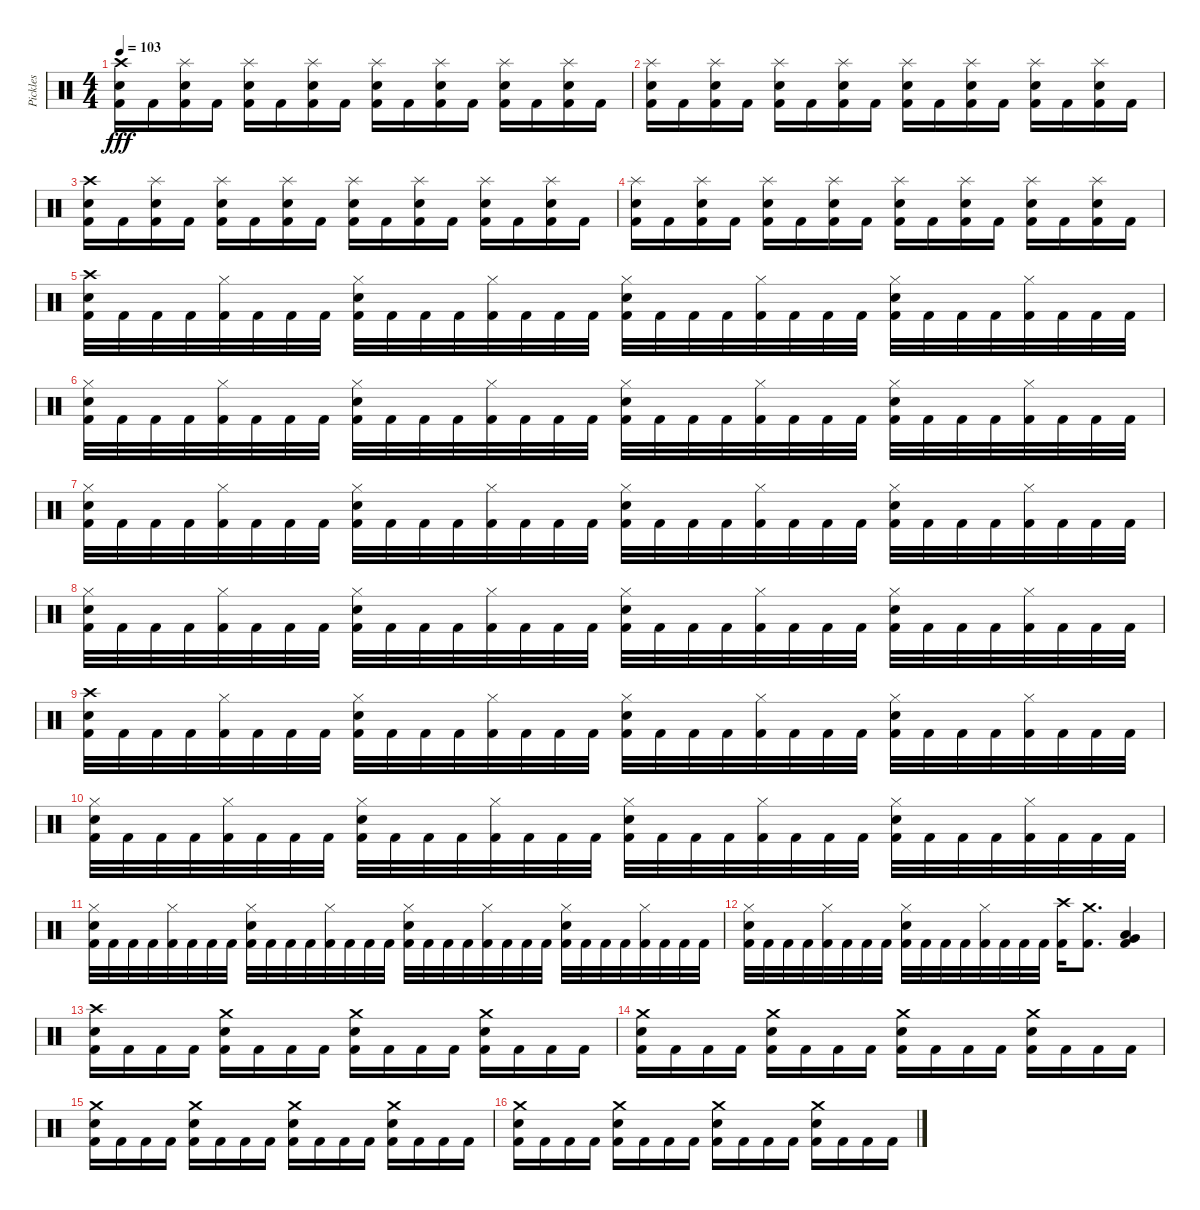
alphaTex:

\track ("Pickles" "Pickles") {instrument percussion}
\staff {score}
\articulation defaults
\ts (4 4)
\tempo 103
\clef neutral
\ks c
("Crash high (hit)" "Electric Snare (hit)" "Kick (hit) 2").16{dy fff} "Kick (hit) 2".16 ("Splash (hit)" "Electric Snare (hit)" "Kick (hit) 2").16 "Kick (hit) 2".16 ("Splash (hit)" "Electric Snare (hit)" "Kick (hit) 2").16 "Kick (hit) 2".16 ("Splash (hit)" "Electric Snare (hit)" "Kick (hit) 2").16 "Kick (hit) 2".16 ("Splash (hit)" "Electric Snare (hit)" "Kick (hit) 2").16 "Kick (hit) 2".16 ("Splash (hit)" "Electric Snare (hit)" "Kick (hit) 2").16 "Kick (hit) 2".16 ("Splash (hit)" "Electric Snare (hit)" "Kick (hit) 2").16 "Kick (hit) 2".16 ("Splash (hit)" "Electric Snare (hit)" "Kick (hit) 2").16 "Kick (hit) 2".16 |
("Splash (hit)" "Electric Snare (hit)" "Kick (hit) 2").16 "Kick (hit) 2".16 ("Splash (hit)" "Electric Snare (hit)" "Kick (hit) 2").16 "Kick (hit) 2".16 ("Splash (hit)" "Electric Snare (hit)" "Kick (hit) 2").16 "Kick (hit) 2".16 ("Splash (hit)" "Electric Snare (hit)" "Kick (hit) 2").16 "Kick (hit) 2".16 ("Splash (hit)" "Electric Snare (hit)" "Kick (hit) 2").16 "Kick (hit) 2".16 ("Splash (hit)" "Electric Snare (hit)" "Kick (hit) 2").16 "Kick (hit) 2".16 ("Splash (hit)" "Electric Snare (hit)" "Kick (hit) 2").16 "Kick (hit) 2".16 ("Splash (hit)" "Electric Snare (hit)" "Kick (hit) 2").16 "Kick (hit) 2".16 |
("Crash high (hit)" "Electric Snare (hit)" "Kick (hit) 2").16 "Kick (hit) 2".16 ("Splash (hit)" "Electric Snare (hit)" "Kick (hit) 2").16 "Kick (hit) 2".16 ("Splash (hit)" "Electric Snare (hit)" "Kick (hit) 2").16 "Kick (hit) 2".16 ("Splash (hit)" "Electric Snare (hit)" "Kick (hit) 2").16 "Kick (hit) 2".16 ("Splash (hit)" "Electric Snare (hit)" "Kick (hit) 2").16 "Kick (hit) 2".16 ("Splash (hit)" "Electric Snare (hit)" "Kick (hit) 2").16 "Kick (hit) 2".16 ("Splash (hit)" "Electric Snare (hit)" "Kick (hit) 2").16 "Kick (hit) 2".16 ("Splash (hit)" "Electric Snare (hit)" "Kick (hit) 2").16 "Kick (hit) 2".16 |
("Splash (hit)" "Electric Snare (hit)" "Kick (hit) 2").16 "Kick (hit) 2".16 ("Splash (hit)" "Electric Snare (hit)" "Kick (hit) 2").16 "Kick (hit) 2".16 ("Splash (hit)" "Electric Snare (hit)" "Kick (hit) 2").16 "Kick (hit) 2".16 ("Splash (hit)" "Electric Snare (hit)" "Kick (hit) 2").16 "Kick (hit) 2".16 ("Splash (hit)" "Electric Snare (hit)" "Kick (hit) 2").16 "Kick (hit) 2".16 ("Splash (hit)" "Electric Snare (hit)" "Kick (hit) 2").16 "Kick (hit) 2".16 ("Splash (hit)" "Electric Snare (hit)" "Kick (hit) 2").16 "Kick (hit) 2".16 ("Splash (hit)" "Electric Snare (hit)" "Kick (hit) 2").16 "Kick (hit) 2".16 |
("Crash high (hit)" "Electric Snare (hit)" "Kick (hit) 2").32 "Kick (hit) 2".32 "Kick (hit) 2".32 "Kick (hit) 2".32 ("Hi-Hat (closed)" "Kick (hit) 2").32 "Kick (hit) 2".32 "Kick (hit) 2".32 "Kick (hit) 2".32 ("Hi-Hat (closed)" "Electric Snare (hit)" "Kick (hit) 2").32 "Kick (hit) 2".32 "Kick (hit) 2".32 "Kick (hit) 2".32 ("Hi-Hat (closed)" "Kick (hit) 2").32 "Kick (hit) 2".32 "Kick (hit) 2".32 "Kick (hit) 2".32 ("Hi-Hat (closed)" "Electric Snare (hit)" "Kick (hit) 2").32 "Kick (hit) 2".32 "Kick (hit) 2".32 "Kick (hit) 2".32 ("Hi-Hat (closed)" "Kick (hit) 2").32 "Kick (hit) 2".32 "Kick (hit) 2".32 "Kick (hit) 2".32 ("Hi-Hat (closed)" "Electric Snare (hit)" "Kick (hit) 2").32 "Kick (hit) 2".32 "Kick (hit) 2".32 "Kick (hit) 2".32 ("Hi-Hat (closed)" "Kick (hit) 2").32 "Kick (hit) 2".32 "Kick (hit) 2".32 "Kick (hit) 2".32 |
("Hi-Hat (closed)" "Electric Snare (hit)" "Kick (hit) 2").32 "Kick (hit) 2".32 "Kick (hit) 2".32 "Kick (hit) 2".32 ("Hi-Hat (closed)" "Kick (hit) 2").32 "Kick (hit) 2".32 "Kick (hit) 2".32 "Kick (hit) 2".32 ("Hi-Hat (closed)" "Electric Snare (hit)" "Kick (hit) 2").32 "Kick (hit) 2".32 "Kick (hit) 2".32 "Kick (hit) 2".32 ("Hi-Hat (closed)" "Kick (hit) 2").32 "Kick (hit) 2".32 "Kick (hit) 2".32 "Kick (hit) 2".32 ("Hi-Hat (closed)" "Electric Snare (hit)" "Kick (hit) 2").32 "Kick (hit) 2".32 "Kick (hit) 2".32 "Kick (hit) 2".32 ("Hi-Hat (closed)" "Kick (hit) 2").32 "Kick (hit) 2".32 "Kick (hit) 2".32 "Kick (hit) 2".32 ("Hi-Hat (closed)" "Electric Snare (hit)" "Kick (hit) 2").32 "Kick (hit) 2".32 "Kick (hit) 2".32 "Kick (hit) 2".32 ("Hi-Hat (closed)" "Kick (hit) 2").32 "Kick (hit) 2".32 "Kick (hit) 2".32 "Kick (hit) 2".32 |
("Hi-Hat (closed)" "Electric Snare (hit)" "Kick (hit) 2").32 "Kick (hit) 2".32 "Kick (hit) 2".32 "Kick (hit) 2".32 ("Hi-Hat (closed)" "Kick (hit) 2").32 "Kick (hit) 2".32 "Kick (hit) 2".32 "Kick (hit) 2".32 ("Hi-Hat (closed)" "Electric Snare (hit)" "Kick (hit) 2").32 "Kick (hit) 2".32 "Kick (hit) 2".32 "Kick (hit) 2".32 ("Hi-Hat (closed)" "Kick (hit) 2").32 "Kick (hit) 2".32 "Kick (hit) 2".32 "Kick (hit) 2".32 ("Hi-Hat (closed)" "Electric Snare (hit)" "Kick (hit) 2").32 "Kick (hit) 2".32 "Kick (hit) 2".32 "Kick (hit) 2".32 ("Hi-Hat (closed)" "Kick (hit) 2").32 "Kick (hit) 2".32 "Kick (hit) 2".32 "Kick (hit) 2".32 ("Hi-Hat (closed)" "Electric Snare (hit)" "Kick (hit) 2").32 "Kick (hit) 2".32 "Kick (hit) 2".32 "Kick (hit) 2".32 ("Hi-Hat (closed)" "Kick (hit) 2").32 "Kick (hit) 2".32 "Kick (hit) 2".32 "Kick (hit) 2".32 |
("Hi-Hat (closed)" "Electric Snare (hit)" "Kick (hit) 2").32 "Kick (hit) 2".32 "Kick (hit) 2".32 "Kick (hit) 2".32 ("Hi-Hat (closed)" "Kick (hit) 2").32 "Kick (hit) 2".32 "Kick (hit) 2".32 "Kick (hit) 2".32 ("Hi-Hat (closed)" "Electric Snare (hit)" "Kick (hit) 2").32 "Kick (hit) 2".32 "Kick (hit) 2".32 "Kick (hit) 2".32 ("Hi-Hat (closed)" "Kick (hit) 2").32 "Kick (hit) 2".32 "Kick (hit) 2".32 "Kick (hit) 2".32 ("Hi-Hat (closed)" "Electric Snare (hit)" "Kick (hit) 2").32 "Kick (hit) 2".32 "Kick (hit) 2".32 "Kick (hit) 2".32 ("Hi-Hat (closed)" "Kick (hit) 2").32 "Kick (hit) 2".32 "Kick (hit) 2".32 "Kick (hit) 2".32 ("Hi-Hat (closed)" "Electric Snare (hit)" "Kick (hit) 2").32 "Kick (hit) 2".32 "Kick (hit) 2".32 "Kick (hit) 2".32 ("Hi-Hat (closed)" "Kick (hit) 2").32 "Kick (hit) 2".32 "Kick (hit) 2".32 "Kick (hit) 2".32 |
("Crash high (hit)" "Electric Snare (hit)" "Kick (hit) 2").32 "Kick (hit) 2".32 "Kick (hit) 2".32 "Kick (hit) 2".32 ("Hi-Hat (closed)" "Kick (hit) 2").32 "Kick (hit) 2".32 "Kick (hit) 2".32 "Kick (hit) 2".32 ("Hi-Hat (closed)" "Electric Snare (hit)" "Kick (hit) 2").32 "Kick (hit) 2".32 "Kick (hit) 2".32 "Kick (hit) 2".32 ("Hi-Hat (closed)" "Kick (hit) 2").32 "Kick (hit) 2".32 "Kick (hit) 2".32 "Kick (hit) 2".32 ("Hi-Hat (closed)" "Electric Snare (hit)" "Kick (hit) 2").32 "Kick (hit) 2".32 "Kick (hit) 2".32 "Kick (hit) 2".32 ("Hi-Hat (closed)" "Kick (hit) 2").32 "Kick (hit) 2".32 "Kick (hit) 2".32 "Kick (hit) 2".32 ("Hi-Hat (closed)" "Electric Snare (hit)" "Kick (hit) 2").32 "Kick (hit) 2".32 "Kick (hit) 2".32 "Kick (hit) 2".32 ("Hi-Hat (closed)" "Kick (hit) 2").32 "Kick (hit) 2".32 "Kick (hit) 2".32 "Kick (hit) 2".32 |
("Hi-Hat (closed)" "Electric Snare (hit)" "Kick (hit) 2").32 "Kick (hit) 2".32 "Kick (hit) 2".32 "Kick (hit) 2".32 ("Hi-Hat (closed)" "Kick (hit) 2").32 "Kick (hit) 2".32 "Kick (hit) 2".32 "Kick (hit) 2".32 ("Hi-Hat (closed)" "Electric Snare (hit)" "Kick (hit) 2").32 "Kick (hit) 2".32 "Kick (hit) 2".32 "Kick (hit) 2".32 ("Hi-Hat (closed)" "Kick (hit) 2").32 "Kick (hit) 2".32 "Kick (hit) 2".32 "Kick (hit) 2".32 ("Hi-Hat (closed)" "Electric Snare (hit)" "Kick (hit) 2").32 "Kick (hit) 2".32 "Kick (hit) 2".32 "Kick (hit) 2".32 ("Hi-Hat (closed)" "Kick (hit) 2").32 "Kick (hit) 2".32 "Kick (hit) 2".32 "Kick (hit) 2".32 ("Hi-Hat (closed)" "Electric Snare (hit)" "Kick (hit) 2").32 "Kick (hit) 2".32 "Kick (hit) 2".32 "Kick (hit) 2".32 ("Hi-Hat (closed)" "Kick (hit) 2").32 "Kick (hit) 2".32 "Kick (hit) 2".32 "Kick (hit) 2".32 |
("Hi-Hat (closed)" "Electric Snare (hit)" "Kick (hit) 2").32 "Kick (hit) 2".32 "Kick (hit) 2".32 "Kick (hit) 2".32 ("Hi-Hat (closed)" "Kick (hit) 2").32 "Kick (hit) 2".32 "Kick (hit) 2".32 "Kick (hit) 2".32 ("Hi-Hat (closed)" "Electric Snare (hit)" "Kick (hit) 2").32 "Kick (hit) 2".32 "Kick (hit) 2".32 "Kick (hit) 2".32 ("Hi-Hat (closed)" "Kick (hit) 2").32 "Kick (hit) 2".32 "Kick (hit) 2".32 "Kick (hit) 2".32 ("Hi-Hat (closed)" "Electric Snare (hit)" "Kick (hit) 2").32 "Kick (hit) 2".32 "Kick (hit) 2".32 "Kick (hit) 2".32 ("Hi-Hat (closed)" "Kick (hit) 2").32 "Kick (hit) 2".32 "Kick (hit) 2".32 "Kick (hit) 2".32 ("Hi-Hat (closed)" "Electric Snare (hit)" "Kick (hit) 2").32 "Kick (hit) 2".32 "Kick (hit) 2".32 "Kick (hit) 2".32 ("Hi-Hat (closed)" "Kick (hit) 2").32 "Kick (hit) 2".32 "Kick (hit) 2".32 "Kick (hit) 2".32 |
("Hi-Hat (closed)" "Electric Snare (hit)" "Kick (hit) 2").32 "Kick (hit) 2".32 "Kick (hit) 2".32 "Kick (hit) 2".32 ("Hi-Hat (closed)" "Kick (hit) 2").32 "Kick (hit) 2".32 "Kick (hit) 2".32 "Kick (hit) 2".32 ("Hi-Hat (closed)" "Electric Snare (hit)" "Kick (hit) 2").32 "Kick (hit) 2".32 "Kick (hit) 2".32 "Kick (hit) 2".32 ("Hi-Hat (closed)" "Kick (hit) 2").32 "Kick (hit) 2".32 "Kick (hit) 2".32 "Kick (hit) 2".32 ("Crash high (hit)" "Kick (hit) 2").16 ("Crash medium (hit)" "Kick (hit) 2").8{d} ("Very Low Tom (hit)" "Low Floor Tom (hit)" "Kick (hit) 2").4 |
("Crash high (hit)" "Electric Snare (hit)" "Kick (hit) 2").16 "Kick (hit) 2".16 "Kick (hit) 2".16 "Kick (hit) 2".16 ("Crash medium (hit)" "Electric Snare (hit)" "Kick (hit) 2").16 "Kick (hit) 2".16 "Kick (hit) 2".16 "Kick (hit) 2".16 ("Crash medium (hit)" "Electric Snare (hit)" "Kick (hit) 2").16 "Kick (hit) 2".16 "Kick (hit) 2".16 "Kick (hit) 2".16 ("Crash medium (hit)" "Electric Snare (hit)" "Kick (hit) 2").16 "Kick (hit) 2".16 "Kick (hit) 2".16 "Kick (hit) 2".16 |
("Crash medium (hit)" "Electric Snare (hit)" "Kick (hit) 2").16 "Kick (hit) 2".16 "Kick (hit) 2".16 "Kick (hit) 2".16 ("Crash medium (hit)" "Electric Snare (hit)" "Kick (hit) 2").16 "Kick (hit) 2".16 "Kick (hit) 2".16 "Kick (hit) 2".16 ("Crash medium (hit)" "Electric Snare (hit)" "Kick (hit) 2").16 "Kick (hit) 2".16 "Kick (hit) 2".16 "Kick (hit) 2".16 ("Crash medium (hit)" "Electric Snare (hit)" "Kick (hit) 2").16 "Kick (hit) 2".16 "Kick (hit) 2".16 "Kick (hit) 2".16 |
("Crash medium (hit)" "Electric Snare (hit)" "Kick (hit) 2").16 "Kick (hit) 2".16 "Kick (hit) 2".16 "Kick (hit) 2".16 ("Crash medium (hit)" "Electric Snare (hit)" "Kick (hit) 2").16 "Kick (hit) 2".16 "Kick (hit) 2".16 "Kick (hit) 2".16 ("Crash medium (hit)" "Electric Snare (hit)" "Kick (hit) 2").16 "Kick (hit) 2".16 "Kick (hit) 2".16 "Kick (hit) 2".16 ("Crash medium (hit)" "Electric Snare (hit)" "Kick (hit) 2").16 "Kick (hit) 2".16 "Kick (hit) 2".16 "Kick (hit) 2".16 |
("Crash medium (hit)" "Electric Snare (hit)" "Kick (hit) 2").16 "Kick (hit) 2".16 "Kick (hit) 2".16 "Kick (hit) 2".16 ("Crash medium (hit)" "Electric Snare (hit)" "Kick (hit) 2").16 "Kick (hit) 2".16 "Kick (hit) 2".16 "Kick (hit) 2".16 ("Crash medium (hit)" "Electric Snare (hit)" "Kick (hit) 2").16 "Kick (hit) 2".16 "Kick (hit) 2".16 "Kick (hit) 2".16 ("Crash medium (hit)" "Electric Snare (hit)" "Kick (hit) 2").16 "Kick (hit) 2".16 "Kick (hit) 2".16 "Kick (hit) 2".16
